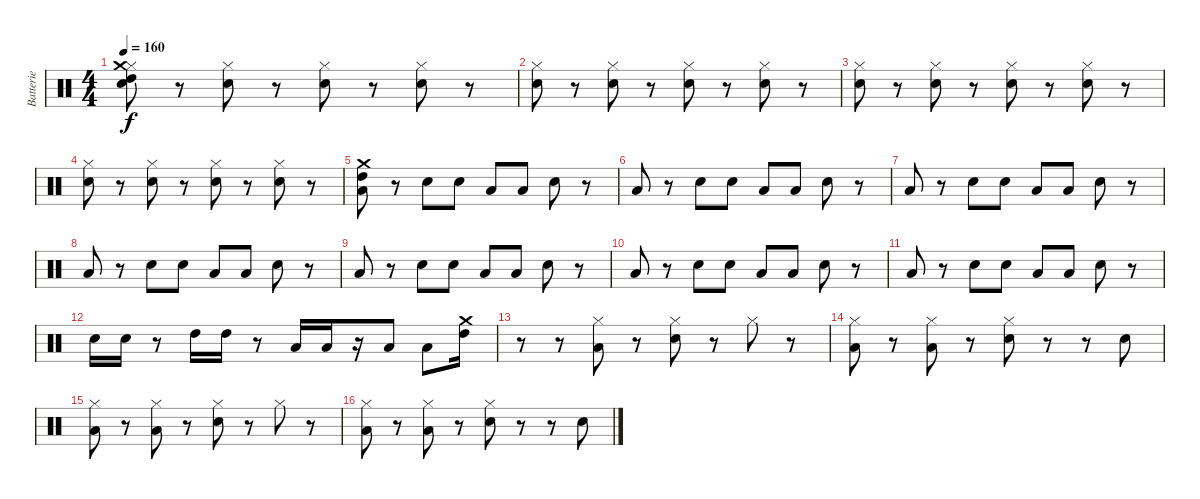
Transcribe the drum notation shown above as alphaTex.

\track ("Batterie" "Batterie") {instrument percussion}
\staff {score}
\articulation defaults
\ts (4 4)
\tempo 160
\clef neutral
\ks c
("Hi-Hat (closed)" "Electric Snare (hit)" "Crash medium (hit)" "High Tom (hit)").8{dy f} r.8 ("Hi-Hat (closed)" "Electric Snare (hit)").8 r.8 ("Hi-Hat (closed)" "Electric Snare (hit)").8 r.8 ("Hi-Hat (closed)" "Electric Snare (hit)").8 r.8 |
("Hi-Hat (closed)" "Electric Snare (hit)").8 r.8 ("Hi-Hat (closed)" "Electric Snare (hit)").8 r.8 ("Hi-Hat (closed)" "Electric Snare (hit)").8 r.8 ("Hi-Hat (closed)" "Electric Snare (hit)").8 r.8 |
("Hi-Hat (closed)" "Electric Snare (hit)").8 r.8 ("Hi-Hat (closed)" "Electric Snare (hit)").8 r.8 ("Hi-Hat (closed)" "Electric Snare (hit)").8 r.8 ("Hi-Hat (closed)" "Electric Snare (hit)").8 r.8 |
("Hi-Hat (closed)" "Electric Snare (hit)").8 r.8 ("Hi-Hat (closed)" "Electric Snare (hit)").8 r.8 ("Hi-Hat (closed)" "Electric Snare (hit)").8 r.8 ("Hi-Hat (closed)" "Electric Snare (hit)").8 r.8 |
("Low Floor Tom (hit)" "Crash medium (hit)" "High Tom (hit)").8 r.8 "Electric Snare (hit)".8 "Electric Snare (hit)".8 "Low Floor Tom (hit)".8 "Low Floor Tom (hit)".8 "Electric Snare (hit)".8 r.8 |
"Low Floor Tom (hit)".8 r.8 "Electric Snare (hit)".8 "Electric Snare (hit)".8 "Low Floor Tom (hit)".8 "Low Floor Tom (hit)".8 "Electric Snare (hit)".8 r.8 |
"Low Floor Tom (hit)".8 r.8 "Electric Snare (hit)".8 "Electric Snare (hit)".8 "Low Floor Tom (hit)".8 "Low Floor Tom (hit)".8 "Electric Snare (hit)".8 r.8 |
"Low Floor Tom (hit)".8 r.8 "Electric Snare (hit)".8 "Electric Snare (hit)".8 "Low Floor Tom (hit)".8 "Low Floor Tom (hit)".8 "Electric Snare (hit)".8 r.8 |
"Low Floor Tom (hit)".8 r.8 "Electric Snare (hit)".8 "Electric Snare (hit)".8 "Low Floor Tom (hit)".8 "Low Floor Tom (hit)".8 "Electric Snare (hit)".8 r.8 |
"Low Floor Tom (hit)".8 r.8 "Electric Snare (hit)".8 "Electric Snare (hit)".8 "Low Floor Tom (hit)".8 "Low Floor Tom (hit)".8 "Electric Snare (hit)".8 r.8 |
"Low Floor Tom (hit)".8 r.8 "Electric Snare (hit)".8 "Electric Snare (hit)".8 "Low Floor Tom (hit)".8 "Low Floor Tom (hit)".8 "Electric Snare (hit)".8 r.8 |
"Electric Snare (hit)".16 "Electric Snare (hit)".16 r.8 "High Tom (hit)".16 "High Tom (hit)".16 r.8 "Low Tom (hit)".16 "Low Tom (hit)".16 r.16 "Low Floor Tom (hit)".8 "Low Floor Tom (hit)".8 ("Crash medium (hit)" "High Tom (hit)").16 |
r.8 r.8 ("Hi-Hat (closed)" "Low Floor Tom (hit)").8 r.8 ("Hi-Hat (closed)" "Electric Snare (hit)").8 r.8 "Hi-Hat (closed)".8 r.8 |
("Hi-Hat (closed)" "Low Floor Tom (hit)").8 r.8 ("Hi-Hat (closed)" "Low Floor Tom (hit)").8 r.8 ("Hi-Hat (closed)" "Electric Snare (hit)").8 r.8 r.8 "Electric Snare (hit)".8 |
("Hi-Hat (closed)" "Low Floor Tom (hit)").8 r.8 ("Hi-Hat (closed)" "Low Floor Tom (hit)").8 r.8 ("Hi-Hat (closed)" "Electric Snare (hit)").8 r.8 "Hi-Hat (closed)".8 r.8 |
("Hi-Hat (closed)" "Low Floor Tom (hit)").8 r.8 ("Hi-Hat (closed)" "Low Floor Tom (hit)").8 r.8 ("Hi-Hat (closed)" "Electric Snare (hit)").8 r.8 r.8 "Electric Snare (hit)".8
